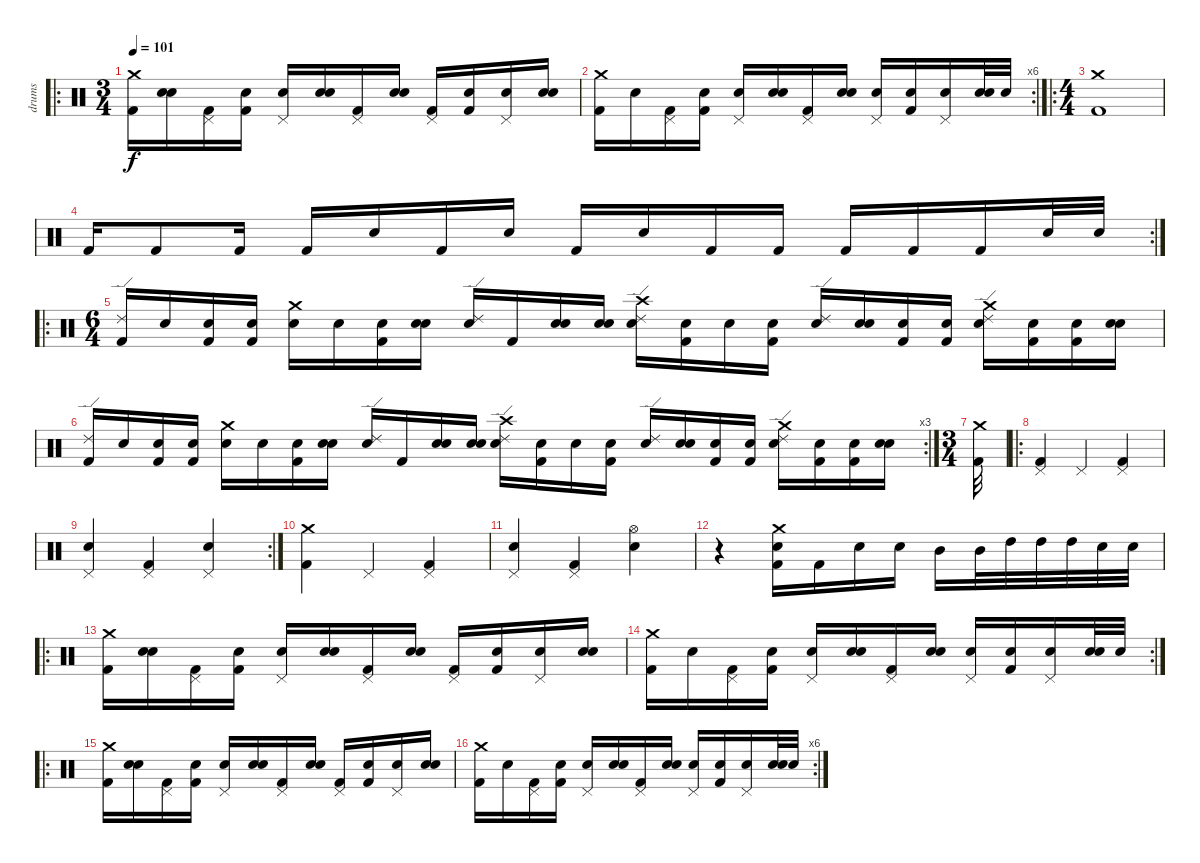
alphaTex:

\track ("drums" "drums") {instrument percussion}
\staff {score}
\articulation defaults
\ro
\ts (3 4)
\tempo 101
\clef neutral
\ks c
("Crash medium (hit)" "Kick (hit) 2").16{dy f} ("Snare (hit)" "Snare (hit)").16 ("Pedal Hi-Hat (hit)" "Kick (hit) 2").16 ("Snare (hit)" "Kick (hit) 2").16 ("Pedal Hi-Hat (hit)" "Electric Snare (hit)").16 ("Snare (hit)" "Snare (hit)").16 ("Pedal Hi-Hat (hit)" "Kick (hit) 2").16 ("Snare (hit)" "Snare (hit)").16 ("Pedal Hi-Hat (hit)" "Kick (hit) 2").16 ("Snare (hit)" "Kick (hit) 2").16 ("Pedal Hi-Hat (hit)" "Electric Snare (hit)").16 ("Snare (hit)" "Electric Snare (hit)").16 |
\rc 6
("Crash medium (hit)" "Kick (hit) 2").16 "Snare (hit)".16 ("Pedal Hi-Hat (hit)" "Kick (hit) 2").16 ("Snare (hit)" "Kick (hit) 2").16 ("Pedal Hi-Hat (hit)" "Electric Snare (hit)").16 ("Snare (hit)" "Snare (hit)").16 ("Pedal Hi-Hat (hit)" "Kick (hit) 2").16 ("Snare (hit)" "Snare (hit)").16 ("Pedal Hi-Hat (hit)" "Snare (hit)").16 ("Snare (hit)" "Kick (hit) 2").16 ("Pedal Hi-Hat (hit)" "Electric Snare (hit)").16 ("Snare (hit)" "Electric Snare (hit)").32 "Electric Snare (hit)".32 |
\ro
\ts (4 4)
("Crash medium (hit)" "Kick (hit) 2").1 |
\rc 2 "Kick (hit) 2".16 "Kick (hit) 2".8 "Kick (hit) 2".16 "Kick (hit) 2".16 "Electric Snare (hit)".16 "Kick (hit) 2".16 "Snare (hit)".16 "Kick (hit) 2".16 "Snare (hit)".16 "Kick (hit) 2".16 "Kick (hit) 2".16 "Kick (hit) 2".16 "Kick (hit) 2".16 "Kick (hit) 2".16 "Electric Snare (hit)".32 "Electric Snare (hit)".32
|
\ro
\ts (6 4)
("Ride (edge) 2" "Kick (hit) 2").16 "Snare (hit)".16 ("Snare (hit)" "Kick (hit) 2").16 ("Snare (hit)" "Kick (hit) 2").16 ("Crash medium (hit)" "Electric Snare (hit)").16 "Snare (hit)".16 ("Snare (hit)" "Kick (hit) 2").16 ("Snare (hit)" "Snare (hit)").16 ("Ride (edge) 2" "Snare (hit)").16 "Kick (hit) 2".16 ("Snare (hit)" "Snare (hit)").16 ("Snare (hit)" "Snare (hit)").16 ("Crash high (hit)" "Electric Snare (hit)" "Ride (edge) 2").16 ("Snare (hit)" "Kick (hit) 2").16 "Snare (hit)".16 ("Snare (hit)" "Kick (hit) 2").16 ("Snare (hit)" "Ride (edge) 2").16 ("Snare (hit)" "Snare (hit)").16 ("Snare (hit)" "Kick (hit) 2").16 ("Snare (hit)" "Kick (hit) 2").16 ("Crash medium (hit)" "Electric Snare (hit)" "Ride (edge) 2").16 ("Snare (hit)" "Kick (hit) 2").16 ("Snare (hit)" "Kick (hit) 2").16 ("Snare (hit)" "Snare (hit)").16 |
\rc 3
("Ride (edge) 2" "Kick (hit) 2").16 "Snare (hit)".16 ("Snare (hit)" "Kick (hit) 2").16 ("Snare (hit)" "Kick (hit) 2").16 ("Crash medium (hit)" "Electric Snare (hit)").16 "Snare (hit)".16 ("Snare (hit)" "Kick (hit) 2").16 ("Snare (hit)" "Snare (hit)").16 ("Ride (edge) 2" "Snare (hit)").16 "Kick (hit) 2".16 ("Snare (hit)" "Snare (hit)").16 ("Snare (hit)" "Snare (hit)").16 ("Crash high (hit)" "Electric Snare (hit)" "Ride (edge) 2").16 ("Snare (hit)" "Kick (hit) 2").16 "Snare (hit)".16 ("Snare (hit)" "Kick (hit) 2").16 ("Snare (hit)" "Ride (edge) 2").16 ("Snare (hit)" "Snare (hit)").16 ("Snare (hit)" "Kick (hit) 2").16 ("Snare (hit)" "Kick (hit) 2").16 ("Crash medium (hit)" "Electric Snare (hit)" "Ride (edge) 2").16 ("Snare (hit)" "Kick (hit) 2").16 ("Snare (hit)" "Kick (hit) 2").16 ("Snare (hit)" "Snare (hit)").16 |
\ts (3 4)
("Crash medium (hit)" "Kick (hit) 2").32 |
\ro
("Pedal Hi-Hat (hit)" "Kick (hit) 2").4 "Pedal Hi-Hat (hit)".4 ("Pedal Hi-Hat (hit)" "Kick (hit) 2").4 |
\rc 2
("Pedal Hi-Hat (hit)" "Snare (hit)").4 ("Pedal Hi-Hat (hit)" "Kick (hit) 2").4 ("Pedal Hi-Hat (hit)" "Snare (hit)").4 |
("Crash medium (hit)" "Kick (hit) 2").4 "Pedal Hi-Hat (hit)".4 ("Pedal Hi-Hat (hit)" "Kick (hit) 2").4 |
("Pedal Hi-Hat (hit)" "Snare (hit)").4 ("Pedal Hi-Hat (hit)" "Kick (hit) 2").4 ("Hi-Hat (open)" "Snare (hit)").4 |
r.4 ("Crash medium (hit)" "Kick (hit) 2" "Electric Snare (hit)").16 "Kick (hit) 2".16 "Electric Snare (hit)".16 "Electric Snare (hit)".16 "Mid Tom (hit)".16 "Mid Tom (hit)".32 "High Tom (hit)".32 "High Tom (hit)".32 "High Tom (hit)".32 "Electric Snare (hit)".32 "Electric Snare (hit)".32 |
\ro
("Crash medium (hit)" "Kick (hit) 2").16 ("Snare (hit)" "Snare (hit)").16 ("Pedal Hi-Hat (hit)" "Kick (hit) 2").16 ("Snare (hit)" "Kick (hit) 2").16 ("Pedal Hi-Hat (hit)" "Electric Snare (hit)").16 ("Snare (hit)" "Snare (hit)").16 ("Pedal Hi-Hat (hit)" "Kick (hit) 2").16 ("Snare (hit)" "Snare (hit)").16 ("Pedal Hi-Hat (hit)" "Kick (hit) 2").16 ("Snare (hit)" "Kick (hit) 2").16 ("Pedal Hi-Hat (hit)" "Electric Snare (hit)").16 ("Snare (hit)" "Electric Snare (hit)").16 |
\rc 2
("Crash medium (hit)" "Kick (hit) 2").16 "Snare (hit)".16 ("Pedal Hi-Hat (hit)" "Kick (hit) 2").16 ("Snare (hit)" "Kick (hit) 2").16 ("Pedal Hi-Hat (hit)" "Electric Snare (hit)").16 ("Snare (hit)" "Snare (hit)").16 ("Pedal Hi-Hat (hit)" "Kick (hit) 2").16 ("Snare (hit)" "Snare (hit)").16 ("Pedal Hi-Hat (hit)" "Snare (hit)").16 ("Snare (hit)" "Kick (hit) 2").16 ("Pedal Hi-Hat (hit)" "Electric Snare (hit)").16 ("Snare (hit)" "Electric Snare (hit)").32 "Electric Snare (hit)".32 |
\ro
("Crash medium (hit)" "Kick (hit) 2").16 ("Snare (hit)" "Snare (hit)").16 ("Pedal Hi-Hat (hit)" "Kick (hit) 2").16 ("Snare (hit)" "Kick (hit) 2").16 ("Pedal Hi-Hat (hit)" "Electric Snare (hit)").16 ("Snare (hit)" "Snare (hit)").16 ("Pedal Hi-Hat (hit)" "Kick (hit) 2").16 ("Snare (hit)" "Snare (hit)").16 ("Pedal Hi-Hat (hit)" "Kick (hit) 2").16 ("Snare (hit)" "Kick (hit) 2").16 ("Pedal Hi-Hat (hit)" "Electric Snare (hit)").16 ("Snare (hit)" "Electric Snare (hit)").16 |
\rc 6
("Crash medium (hit)" "Kick (hit) 2").16 "Snare (hit)".16 ("Pedal Hi-Hat (hit)" "Kick (hit) 2").16 ("Snare (hit)" "Kick (hit) 2").16 ("Pedal Hi-Hat (hit)" "Electric Snare (hit)").16 ("Snare (hit)" "Snare (hit)").16 ("Pedal Hi-Hat (hit)" "Kick (hit) 2").16 ("Snare (hit)" "Snare (hit)").16 ("Pedal Hi-Hat (hit)" "Snare (hit)").16 ("Snare (hit)" "Kick (hit) 2").16 ("Pedal Hi-Hat (hit)" "Electric Snare (hit)").16 ("Snare (hit)" "Electric Snare (hit)").32 "Electric Snare (hit)".32
